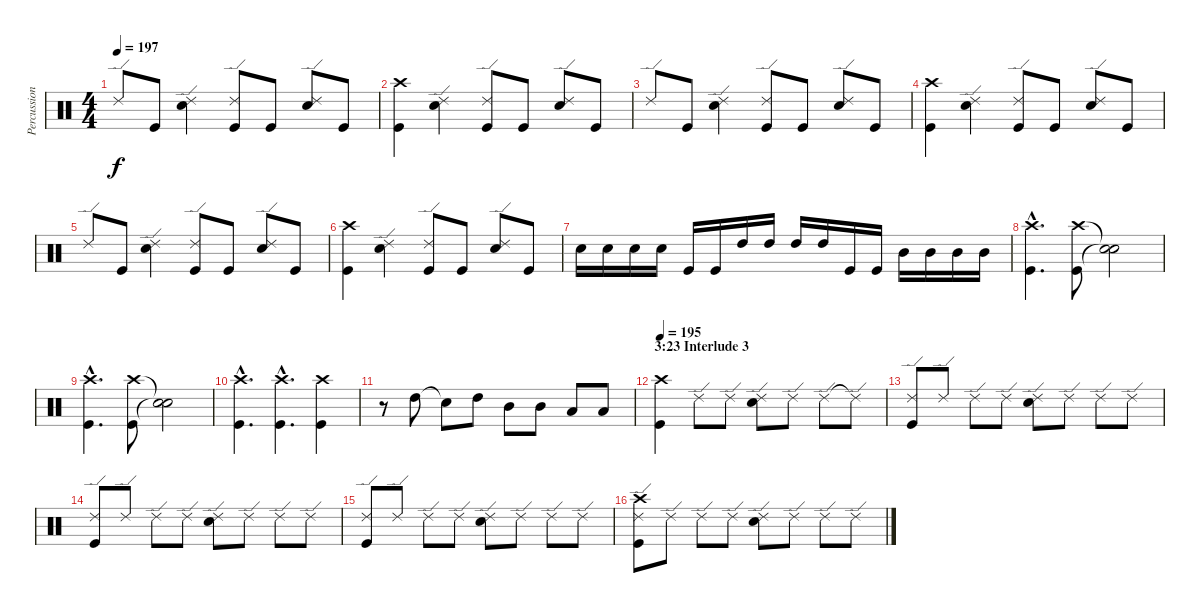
\track ("Percussion" "Percussion") {instrument percussion}
\staff {score}
\articulation defaults
\ts (4 4)
\tempo 197
\clef neutral
\ks c "Ride (edge) 2".8{dy f} "Kick (hit)".8
("Ride (edge) 2" "Snare (hit) 2").4 ("Ride (edge) 2" "Kick (hit)").8 "Kick (hit)".8 ("Ride (edge) 2" "Snare (hit) 2").8 "Kick (hit)".8 |
("Crash high (hit)" "Kick (hit)").4 ("Ride (edge) 2" "Snare (hit) 2").4 ("Ride (edge) 2" "Kick (hit)").8 "Kick (hit)".8 ("Ride (edge) 2" "Snare (hit) 2").8 "Kick (hit)".8 |
"Ride (edge) 2".8 "Kick (hit)".8 ("Ride (edge) 2" "Snare (hit) 2").4 ("Ride (edge) 2" "Kick (hit)").8 "Kick (hit)".8 ("Ride (edge) 2" "Snare (hit) 2").8 "Kick (hit)".8 |
("Crash high (hit)" "Kick (hit)").4 ("Ride (edge) 2" "Snare (hit) 2").4 ("Ride (edge) 2" "Kick (hit)").8 "Kick (hit)".8 ("Ride (edge) 2" "Snare (hit) 2").8 "Kick (hit)".8 |
"Ride (edge) 2".8 "Kick (hit)".8 ("Ride (edge) 2" "Snare (hit) 2").4 ("Ride (edge) 2" "Kick (hit)").8 "Kick (hit)".8 ("Ride (edge) 2" "Snare (hit) 2").8 "Kick (hit)".8 |
("Crash high (hit)" "Kick (hit)").4 ("Ride (edge) 2" "Snare (hit) 2").4 ("Ride (edge) 2" "Kick (hit)").8 "Kick (hit)".8 ("Ride (edge) 2" "Snare (hit) 2").8 "Kick (hit)".8 |
"Snare (hit) 2".16 "Snare (hit) 2".16 "Snare (hit) 2".16 "Snare (hit) 2".16 "Kick (hit)".16 "Kick (hit)".16 "High Tom (hit)".16 "High Tom (hit)".16 "High Tom (hit)".16 "High Tom (hit)".16 "Kick (hit)".16 "Kick (hit)".16 "Mid Tom (hit)".16 "Mid Tom (hit)".16 "Mid Tom (hit)".16 "Mid Tom (hit)".16 |
("Crash high (hit)"{hac} "Kick (hit)"{hac}).4{d} ("Crash high (hit)" "Kick (hit)").8 ("Snare (hit)"{t} "Snare (hit)"{t}).2 |
("Crash high (hit)"{hac} "Kick (hit)"{hac}).4{d} ("Crash high (hit)" "Kick (hit)").8 ("Snare (hit)"{t} "Snare (hit)"{t}).2 |
("Crash high (hit)"{hac} "Kick (hit)"{hac}).4{d} ("Crash high (hit)"{hac} "Kick (hit)"{hac}).4{d} ("Crash high (hit)" "Kick (hit)").4 |
r.8 "High Tom (hit)".8 "Snare (hit)"{t}.8 "High Tom (hit)".8 "Mid Tom (hit)".8 "Mid Tom (hit)".8 "Low Tom (hit)".8 "Low Tom (hit)".8 |
\section ("" "3:23 Interlude 3")
\tempo 195
("Crash high (hit)" "Kick (hit)").4 "Ride (edge) 2".8 "Ride (edge) 2".8 ("Ride (edge) 2" "Snare (hit) 2").8 "Ride (edge) 2".8 "Ride (edge) 2".8 "Ride (edge) 2"{t}.8 |
("Ride (edge) 2" "Kick (hit)").8 "Ride (edge) 2".8 "Ride (edge) 2".8 "Ride (edge) 2".8 ("Ride (edge) 2" "Snare (hit) 2").8 "Ride (edge) 2".8 "Ride (edge) 2".8 "Ride (edge) 2".8 |
("Ride (edge) 2" "Kick (hit)").8 "Ride (edge) 2".8 "Ride (edge) 2".8 "Ride (edge) 2".8 ("Ride (edge) 2" "Snare (hit) 2").8 "Ride (edge) 2".8 "Ride (edge) 2".8 "Ride (edge) 2".8 |
("Ride (edge) 2" "Kick (hit)").8 "Ride (edge) 2".8 "Ride (edge) 2".8 "Ride (edge) 2".8 ("Ride (edge) 2" "Snare (hit) 2").8 "Ride (edge) 2".8 "Ride (edge) 2".8 "Ride (edge) 2".8 |
("Crash high (hit)" "Ride (edge) 2" "Kick (hit)").8 "Ride (edge) 2".8 "Ride (edge) 2".8 "Ride (edge) 2".8 ("Ride (edge) 2" "Snare (hit) 2").8 "Ride (edge) 2".8 "Ride (edge) 2".8 "Ride (edge) 2".8
